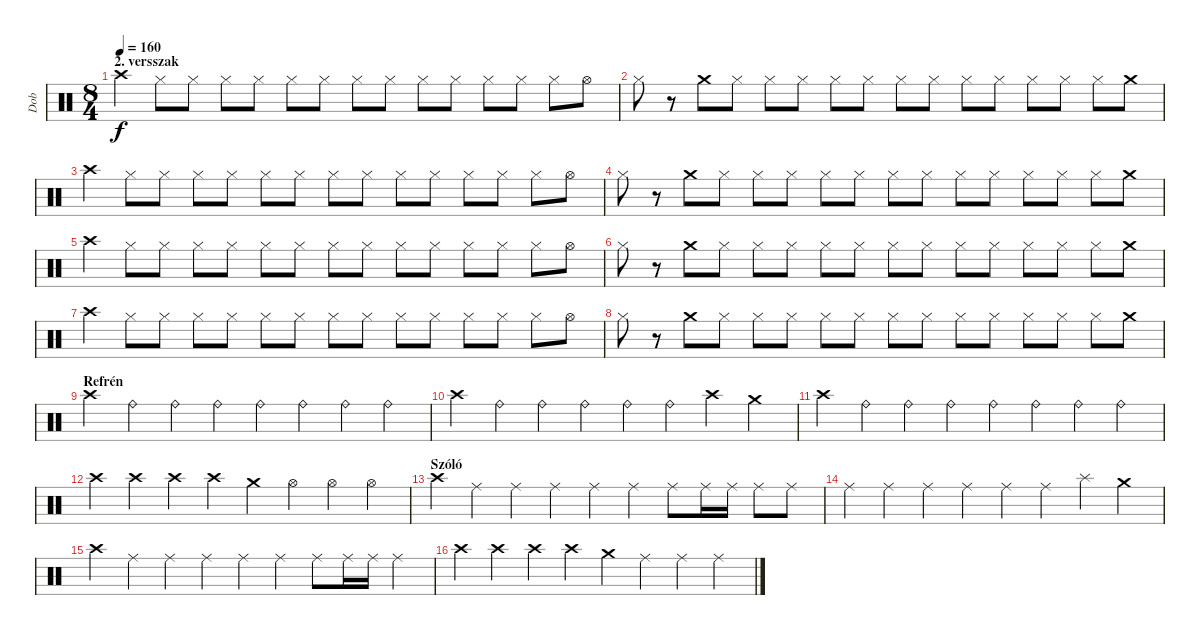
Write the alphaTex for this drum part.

\track ("Dob" "Dob") {instrument percussion}
\staff {score}
\articulation defaults
\ts (8 4)
\section ("" "2. versszak")
\tempo 160
\clef neutral
\ks c "Crash high (hit)".4{dy f} "Hi-Hat (closed)".8 "Hi-Hat (closed)".8 "Hi-Hat (closed)".8 "Hi-Hat (closed)".8 "Hi-Hat (closed)".8 "Hi-Hat (closed)".8 "Hi-Hat (closed)".8 "Hi-Hat (closed)".8 "Hi-Hat (closed)".8 "Hi-Hat (closed)".8 "Hi-Hat (closed)".8 "Hi-Hat (closed)".8 "Hi-Hat (closed)".8 "Hi-Hat (open)".8
|
"Hi-Hat (closed)".8 r.8 "Crash medium (hit)".8 "Hi-Hat (closed)".8 "Hi-Hat (closed)".8 "Hi-Hat (closed)".8 "Hi-Hat (closed)".8 "Hi-Hat (closed)".8 "Hi-Hat (closed)".8 "Hi-Hat (closed)".8 "Hi-Hat (closed)".8 "Hi-Hat (closed)".8 "Hi-Hat (closed)".8 "Hi-Hat (closed)".8 "Hi-Hat (closed)".8 "Crash medium (hit)".8 |
"Crash high (hit)".4 "Hi-Hat (closed)".8 "Hi-Hat (closed)".8 "Hi-Hat (closed)".8 "Hi-Hat (closed)".8 "Hi-Hat (closed)".8 "Hi-Hat (closed)".8 "Hi-Hat (closed)".8 "Hi-Hat (closed)".8 "Hi-Hat (closed)".8 "Hi-Hat (closed)".8 "Hi-Hat (closed)".8 "Hi-Hat (closed)".8 "Hi-Hat (closed)".8 "Hi-Hat (open)".8 |
"Hi-Hat (closed)".8 r.8 "Crash medium (hit)".8 "Hi-Hat (closed)".8 "Hi-Hat (closed)".8 "Hi-Hat (closed)".8 "Hi-Hat (closed)".8 "Hi-Hat (closed)".8 "Hi-Hat (closed)".8 "Hi-Hat (closed)".8 "Hi-Hat (closed)".8 "Hi-Hat (closed)".8 "Hi-Hat (closed)".8 "Hi-Hat (closed)".8 "Hi-Hat (closed)".8 "Crash medium (hit)".8 |
"Crash high (hit)".4 "Hi-Hat (closed)".8 "Hi-Hat (closed)".8 "Hi-Hat (closed)".8 "Hi-Hat (closed)".8 "Hi-Hat (closed)".8 "Hi-Hat (closed)".8 "Hi-Hat (closed)".8 "Hi-Hat (closed)".8 "Hi-Hat (closed)".8 "Hi-Hat (closed)".8 "Hi-Hat (closed)".8 "Hi-Hat (closed)".8 "Hi-Hat (closed)".8 "Hi-Hat (open)".8 |
"Hi-Hat (closed)".8 r.8 "Crash medium (hit)".8 "Hi-Hat (closed)".8 "Hi-Hat (closed)".8 "Hi-Hat (closed)".8 "Hi-Hat (closed)".8 "Hi-Hat (closed)".8 "Hi-Hat (closed)".8 "Hi-Hat (closed)".8 "Hi-Hat (closed)".8 "Hi-Hat (closed)".8 "Hi-Hat (closed)".8 "Hi-Hat (closed)".8 "Hi-Hat (closed)".8 "Crash medium (hit)".8 |
"Crash high (hit)".4 "Hi-Hat (closed)".8 "Hi-Hat (closed)".8 "Hi-Hat (closed)".8 "Hi-Hat (closed)".8 "Hi-Hat (closed)".8 "Hi-Hat (closed)".8 "Hi-Hat (closed)".8 "Hi-Hat (closed)".8 "Hi-Hat (closed)".8 "Hi-Hat (closed)".8 "Hi-Hat (closed)".8 "Hi-Hat (closed)".8 "Hi-Hat (closed)".8 "Hi-Hat (open)".8 |
"Hi-Hat (closed)".8 r.8 "Crash medium (hit)".8 "Hi-Hat (closed)".8 "Hi-Hat (closed)".8 "Hi-Hat (closed)".8 "Hi-Hat (closed)".8 "Hi-Hat (closed)".8 "Hi-Hat (closed)".8 "Hi-Hat (closed)".8 "Hi-Hat (closed)".8 "Hi-Hat (closed)".8 "Hi-Hat (closed)".8 "Hi-Hat (closed)".8 "Hi-Hat (closed)".8 "Crash medium (hit)".8 |
\section ("" "Refrén")
"Crash high (hit)".4 "Ride (bell)".4 "Ride (bell)".4 "Ride (bell)".4 "Ride (bell)".4 "Ride (bell)".4 "Ride (bell)".4 "Ride (bell)".4 |
"Crash high (hit)".4 "Ride (bell)".4 "Ride (bell)".4 "Ride (bell)".4 "Ride (bell)".4 "Ride (bell)".4 "Crash high (hit)".4 "Crash medium (hit)".4 |
"Crash high (hit)".4 "Ride (bell)".4 "Ride (bell)".4 "Ride (bell)".4 "Ride (bell)".4 "Ride (bell)".4 "Ride (bell)".4 "Ride (bell)".4 |
"Crash high (hit)".4 "Crash high (hit)".4 "Crash high (hit)".4 "Crash high (hit)".4 "Crash medium (hit)".4 "Hi-Hat (open)".4 "Hi-Hat (open)".4 "Hi-Hat (open)".4 |
\section ("" "Szóló")
"Crash high (hit)".4 "Ride (middle)".4 "Ride (middle)".4 "Ride (middle)".4 "Ride (middle)".4 "Ride (middle)".4 "Ride (middle)".8 "Ride (middle)".16 "Ride (middle)".16 "Ride (middle)".8 "Ride (middle)".8 |
"Ride (middle)".4 "Ride (middle)".4 "Ride (middle)".4 "Ride (middle)".4 "Ride (middle)".4 "Ride (middle)".4 "Splash (hit)".4 "Crash medium (hit)".4 |
"Crash high (hit)".4 "Ride (middle)".4 "Ride (middle)".4 "Ride (middle)".4 "Ride (middle)".4 "Ride (middle)".4 "Ride (middle)".8 "Ride (middle)".16 "Ride (middle)".16 "Ride (middle)".4 |
"Crash high (hit)".4 "Crash high (hit)".4 "Crash high (hit)".4 "Crash high (hit)".4 "Crash medium (hit)".4 "Ride (middle)".4 "Ride (middle)".4 "Ride (middle)".4
